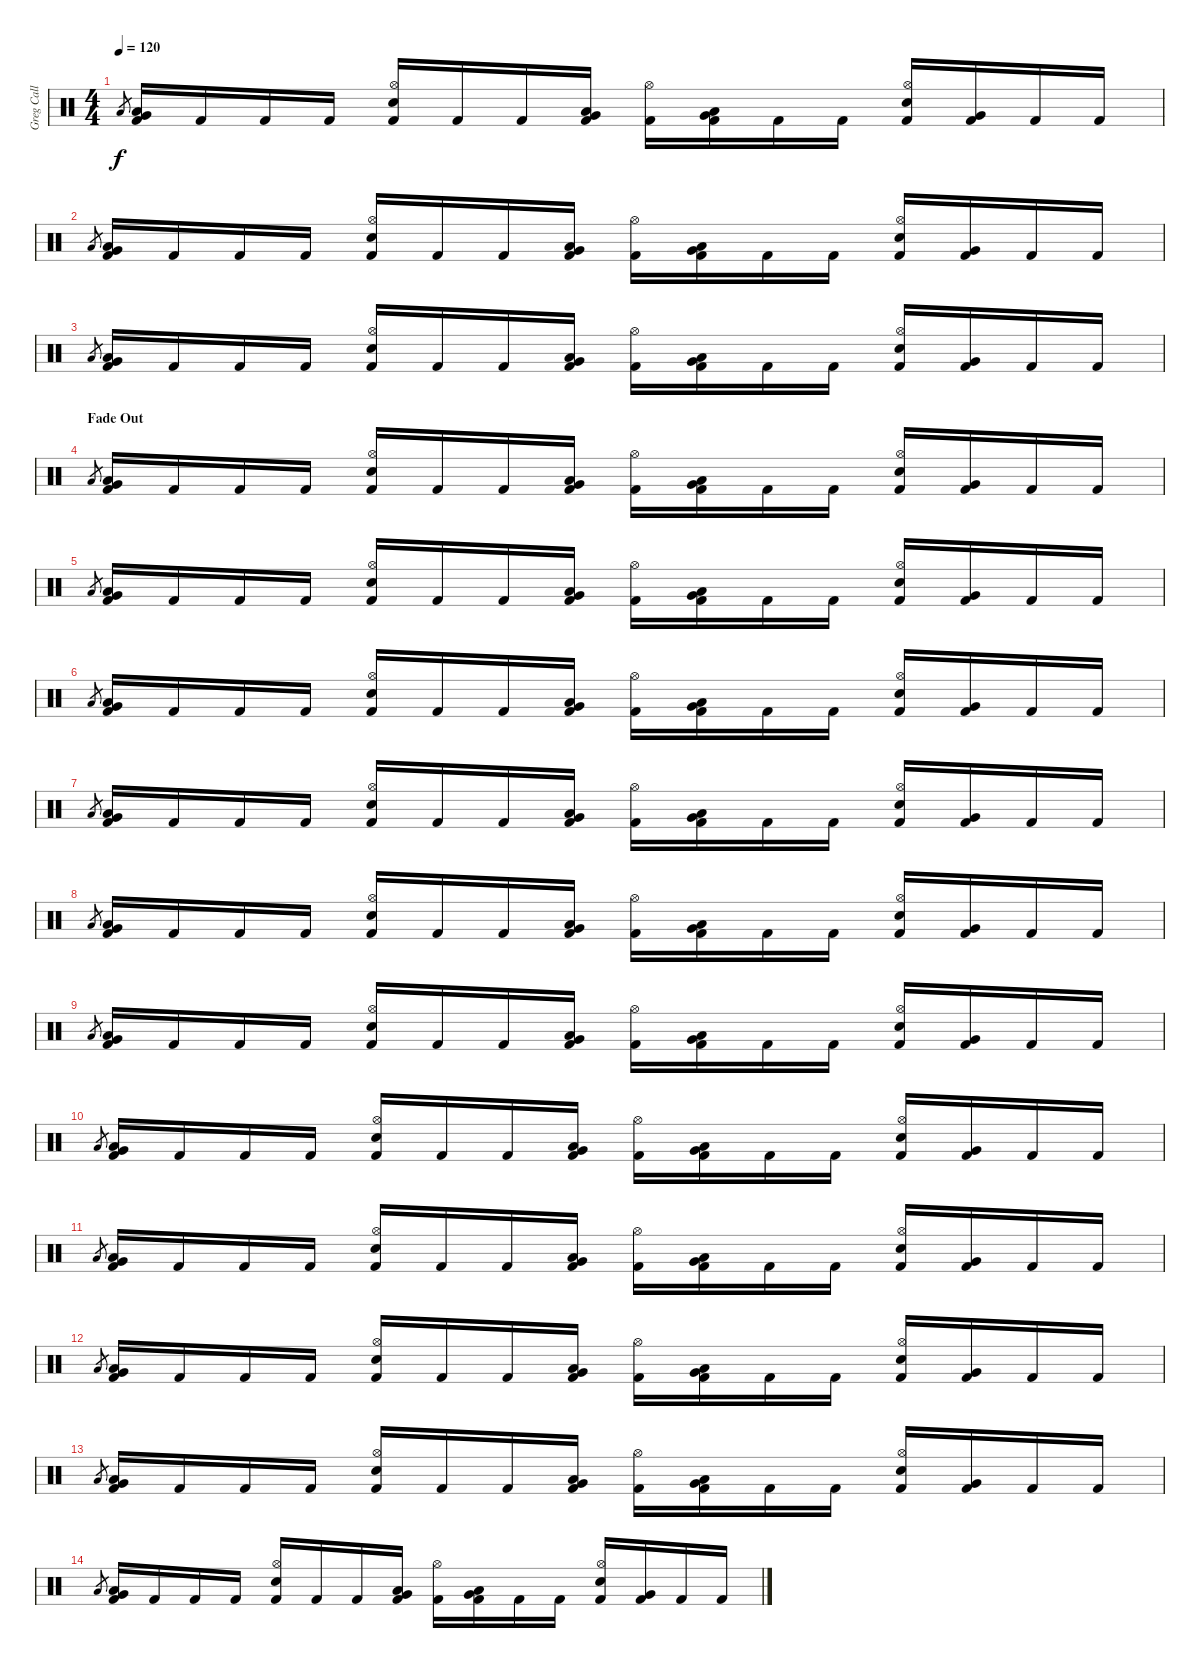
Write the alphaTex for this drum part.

\track ("Greg Call (Drums)" "Greg Call ") {instrument percussion}
\staff {score}
\articulation defaults
\ts (4 4)
\tempo 120
\clef neutral
\ks c "Low Floor Tom (hit)".8{gr dy f}
("Very Low Tom (hit)" "Low Floor Tom (hit)" "Kick (hit) 2").16 "Kick (hit) 2".16 "Kick (hit) 2".16 "Kick (hit) 2".16 ("Hi-Hat (open)" "Snare (hit) 2" "Kick (hit) 2").16 "Kick (hit) 2".16 "Kick (hit) 2".16 ("Low Tom (hit)" "Very Low Tom (hit)" "Kick (hit) 2").16 ("Hi-Hat (open)" "Kick (hit) 2").16 ("Low Tom (hit)" "Very Low Tom (hit)" "Kick (hit) 2").16 "Kick (hit) 2".16 "Kick (hit) 2".16 ("Hi-Hat (open)" "Snare (hit) 2" "Kick (hit) 2").16 ("Very Low Tom (hit)" "Kick (hit) 2").16 "Kick (hit) 2".16 "Kick (hit) 2".16 |
"Low Floor Tom (hit)".8{gr} ("Very Low Tom (hit)" "Low Floor Tom (hit)" "Kick (hit) 2").16 "Kick (hit) 2".16 "Kick (hit) 2".16 "Kick (hit) 2".16 ("Hi-Hat (open)" "Snare (hit) 2" "Kick (hit) 2").16 "Kick (hit) 2".16 "Kick (hit) 2".16 ("Low Tom (hit)" "Very Low Tom (hit)" "Kick (hit) 2").16 ("Hi-Hat (open)" "Kick (hit) 2").16 ("Low Tom (hit)" "Very Low Tom (hit)" "Kick (hit) 2").16 "Kick (hit) 2".16 "Kick (hit) 2".16 ("Hi-Hat (open)" "Snare (hit) 2" "Kick (hit) 2").16 ("Very Low Tom (hit)" "Kick (hit) 2").16 "Kick (hit) 2".16 "Kick (hit) 2".16 |
"Low Floor Tom (hit)".8{gr} ("Very Low Tom (hit)" "Low Floor Tom (hit)" "Kick (hit) 2").16 "Kick (hit) 2".16 "Kick (hit) 2".16 "Kick (hit) 2".16 ("Hi-Hat (open)" "Snare (hit) 2" "Kick (hit) 2").16 "Kick (hit) 2".16 "Kick (hit) 2".16 ("Low Tom (hit)" "Very Low Tom (hit)" "Kick (hit) 2").16 ("Hi-Hat (open)" "Kick (hit) 2").16 ("Low Tom (hit)" "Very Low Tom (hit)" "Kick (hit) 2").16 "Kick (hit) 2".16 "Kick (hit) 2".16 ("Hi-Hat (open)" "Snare (hit) 2" "Kick (hit) 2").16 ("Very Low Tom (hit)" "Kick (hit) 2").16 "Kick (hit) 2".16 "Kick (hit) 2".16 |
\section ("" "Fade Out")
"Low Floor Tom (hit)".8{gr} ("Very Low Tom (hit)" "Low Floor Tom (hit)" "Kick (hit) 2").16{volume 14} "Kick (hit) 2".16 "Kick (hit) 2".16 "Kick (hit) 2".16 ("Hi-Hat (open)" "Snare (hit) 2" "Kick (hit) 2").16 "Kick (hit) 2".16 "Kick (hit) 2".16 ("Low Tom (hit)" "Very Low Tom (hit)" "Kick (hit) 2").16 ("Hi-Hat (open)" "Kick (hit) 2").16 ("Low Tom (hit)" "Very Low Tom (hit)" "Kick (hit) 2").16 "Kick (hit) 2".16 "Kick (hit) 2".16 ("Hi-Hat (open)" "Snare (hit) 2" "Kick (hit) 2").16 ("Very Low Tom (hit)" "Kick (hit) 2").16 "Kick (hit) 2".16 "Kick (hit) 2".16 |
"Low Floor Tom (hit)".8{gr} ("Very Low Tom (hit)" "Low Floor Tom (hit)" "Kick (hit) 2").16{volume 12} "Kick (hit) 2".16 "Kick (hit) 2".16 "Kick (hit) 2".16 ("Hi-Hat (open)" "Snare (hit) 2" "Kick (hit) 2").16 "Kick (hit) 2".16 "Kick (hit) 2".16 ("Low Tom (hit)" "Very Low Tom (hit)" "Kick (hit) 2").16 ("Hi-Hat (open)" "Kick (hit) 2").16 ("Low Tom (hit)" "Very Low Tom (hit)" "Kick (hit) 2").16 "Kick (hit) 2".16 "Kick (hit) 2".16 ("Hi-Hat (open)" "Snare (hit) 2" "Kick (hit) 2").16 ("Very Low Tom (hit)" "Kick (hit) 2").16 "Kick (hit) 2".16 "Kick (hit) 2".16 |
"Low Floor Tom (hit)".8{gr} ("Very Low Tom (hit)" "Low Floor Tom (hit)" "Kick (hit) 2").16{volume 11} "Kick (hit) 2".16 "Kick (hit) 2".16 "Kick (hit) 2".16 ("Hi-Hat (open)" "Snare (hit) 2" "Kick (hit) 2").16 "Kick (hit) 2".16 "Kick (hit) 2".16 ("Low Tom (hit)" "Very Low Tom (hit)" "Kick (hit) 2").16 ("Hi-Hat (open)" "Kick (hit) 2").16 ("Low Tom (hit)" "Very Low Tom (hit)" "Kick (hit) 2").16 "Kick (hit) 2".16 "Kick (hit) 2".16 ("Hi-Hat (open)" "Snare (hit) 2" "Kick (hit) 2").16 ("Very Low Tom (hit)" "Kick (hit) 2").16 "Kick (hit) 2".16 "Kick (hit) 2".16 |
"Low Floor Tom (hit)".8{gr} ("Very Low Tom (hit)" "Low Floor Tom (hit)" "Kick (hit) 2").16{volume 10} "Kick (hit) 2".16 "Kick (hit) 2".16 "Kick (hit) 2".16 ("Hi-Hat (open)" "Snare (hit) 2" "Kick (hit) 2").16 "Kick (hit) 2".16 "Kick (hit) 2".16 ("Low Tom (hit)" "Very Low Tom (hit)" "Kick (hit) 2").16 ("Hi-Hat (open)" "Kick (hit) 2").16 ("Low Tom (hit)" "Very Low Tom (hit)" "Kick (hit) 2").16 "Kick (hit) 2".16 "Kick (hit) 2".16 ("Hi-Hat (open)" "Snare (hit) 2" "Kick (hit) 2").16 ("Very Low Tom (hit)" "Kick (hit) 2").16 "Kick (hit) 2".16 "Kick (hit) 2".16 |
"Low Floor Tom (hit)".8{gr} ("Very Low Tom (hit)" "Low Floor Tom (hit)" "Kick (hit) 2").16{volume 9} "Kick (hit) 2".16 "Kick (hit) 2".16 "Kick (hit) 2".16 ("Hi-Hat (open)" "Snare (hit) 2" "Kick (hit) 2").16 "Kick (hit) 2".16 "Kick (hit) 2".16 ("Low Tom (hit)" "Very Low Tom (hit)" "Kick (hit) 2").16 ("Hi-Hat (open)" "Kick (hit) 2").16 ("Low Tom (hit)" "Very Low Tom (hit)" "Kick (hit) 2").16 "Kick (hit) 2".16 "Kick (hit) 2".16 ("Hi-Hat (open)" "Snare (hit) 2" "Kick (hit) 2").16 ("Very Low Tom (hit)" "Kick (hit) 2").16 "Kick (hit) 2".16 "Kick (hit) 2".16 |
"Low Floor Tom (hit)".8{gr} ("Very Low Tom (hit)" "Low Floor Tom (hit)" "Kick (hit) 2").16 "Kick (hit) 2".16{volume 8} "Kick (hit) 2".16 "Kick (hit) 2".16 ("Hi-Hat (open)" "Snare (hit) 2" "Kick (hit) 2").16 "Kick (hit) 2".16 "Kick (hit) 2".16 ("Low Tom (hit)" "Very Low Tom (hit)" "Kick (hit) 2").16 ("Hi-Hat (open)" "Kick (hit) 2").16 ("Low Tom (hit)" "Very Low Tom (hit)" "Kick (hit) 2").16 "Kick (hit) 2".16 "Kick (hit) 2".16 ("Hi-Hat (open)" "Snare (hit) 2" "Kick (hit) 2").16 ("Very Low Tom (hit)" "Kick (hit) 2").16 "Kick (hit) 2".16 "Kick (hit) 2".16 |
"Low Floor Tom (hit)".8{gr} ("Very Low Tom (hit)" "Low Floor Tom (hit)" "Kick (hit) 2").16{volume 6} "Kick (hit) 2".16 "Kick (hit) 2".16 "Kick (hit) 2".16 ("Hi-Hat (open)" "Snare (hit) 2" "Kick (hit) 2").16 "Kick (hit) 2".16 "Kick (hit) 2".16 ("Low Tom (hit)" "Very Low Tom (hit)" "Kick (hit) 2").16 ("Hi-Hat (open)" "Kick (hit) 2").16 ("Low Tom (hit)" "Very Low Tom (hit)" "Kick (hit) 2").16 "Kick (hit) 2".16 "Kick (hit) 2".16 ("Hi-Hat (open)" "Snare (hit) 2" "Kick (hit) 2").16 ("Very Low Tom (hit)" "Kick (hit) 2").16 "Kick (hit) 2".16 "Kick (hit) 2".16 |
"Low Floor Tom (hit)".8{gr} ("Very Low Tom (hit)" "Low Floor Tom (hit)" "Kick (hit) 2").16{volume 5} "Kick (hit) 2".16 "Kick (hit) 2".16 "Kick (hit) 2".16 ("Hi-Hat (open)" "Snare (hit) 2" "Kick (hit) 2").16 "Kick (hit) 2".16 "Kick (hit) 2".16 ("Low Tom (hit)" "Very Low Tom (hit)" "Kick (hit) 2").16 ("Hi-Hat (open)" "Kick (hit) 2").16 ("Low Tom (hit)" "Very Low Tom (hit)" "Kick (hit) 2").16 "Kick (hit) 2".16 "Kick (hit) 2".16 ("Hi-Hat (open)" "Snare (hit) 2" "Kick (hit) 2").16 ("Very Low Tom (hit)" "Kick (hit) 2").16 "Kick (hit) 2".16 "Kick (hit) 2".16 |
"Low Floor Tom (hit)".8{gr} ("Very Low Tom (hit)" "Low Floor Tom (hit)" "Kick (hit) 2").16 "Kick (hit) 2".16 "Kick (hit) 2".16 "Kick (hit) 2".16 ("Hi-Hat (open)" "Snare (hit) 2" "Kick (hit) 2").16 "Kick (hit) 2".16 "Kick (hit) 2".16 ("Low Tom (hit)" "Very Low Tom (hit)" "Kick (hit) 2").16 ("Hi-Hat (open)" "Kick (hit) 2").16 ("Low Tom (hit)" "Very Low Tom (hit)" "Kick (hit) 2").16 "Kick (hit) 2".16 "Kick (hit) 2".16{volume 4} ("Hi-Hat (open)" "Snare (hit) 2" "Kick (hit) 2").16 ("Very Low Tom (hit)" "Kick (hit) 2").16 "Kick (hit) 2".16 "Kick (hit) 2".16 |
"Low Floor Tom (hit)".8{gr} ("Very Low Tom (hit)" "Low Floor Tom (hit)" "Kick (hit) 2").16 "Kick (hit) 2".16 "Kick (hit) 2".16 "Kick (hit) 2".16 ("Hi-Hat (open)" "Snare (hit) 2" "Kick (hit) 2").16 "Kick (hit) 2".16 "Kick (hit) 2".16 ("Low Tom (hit)" "Very Low Tom (hit)" "Kick (hit) 2").16{volume 2} ("Hi-Hat (open)" "Kick (hit) 2").16 ("Low Tom (hit)" "Very Low Tom (hit)" "Kick (hit) 2").16 "Kick (hit) 2".16 "Kick (hit) 2".16 ("Hi-Hat (open)" "Snare (hit) 2" "Kick (hit) 2").16 ("Very Low Tom (hit)" "Kick (hit) 2").16 "Kick (hit) 2".16 "Kick (hit) 2".16 |
"Low Floor Tom (hit)".8{gr} ("Very Low Tom (hit)" "Low Floor Tom (hit)" "Kick (hit) 2").16 "Kick (hit) 2".16{volume 0} "Kick (hit) 2".16 "Kick (hit) 2".16 ("Hi-Hat (open)" "Snare (hit) 2" "Kick (hit) 2").16 "Kick (hit) 2".16 "Kick (hit) 2".16 ("Low Tom (hit)" "Very Low Tom (hit)" "Kick (hit) 2").16 ("Hi-Hat (open)" "Kick (hit) 2").16 ("Low Tom (hit)" "Very Low Tom (hit)" "Kick (hit) 2").16 "Kick (hit) 2".16 "Kick (hit) 2".16 ("Hi-Hat (open)" "Snare (hit) 2" "Kick (hit) 2").16 ("Very Low Tom (hit)" "Kick (hit) 2").16 "Kick (hit) 2".16 "Kick (hit) 2".16
